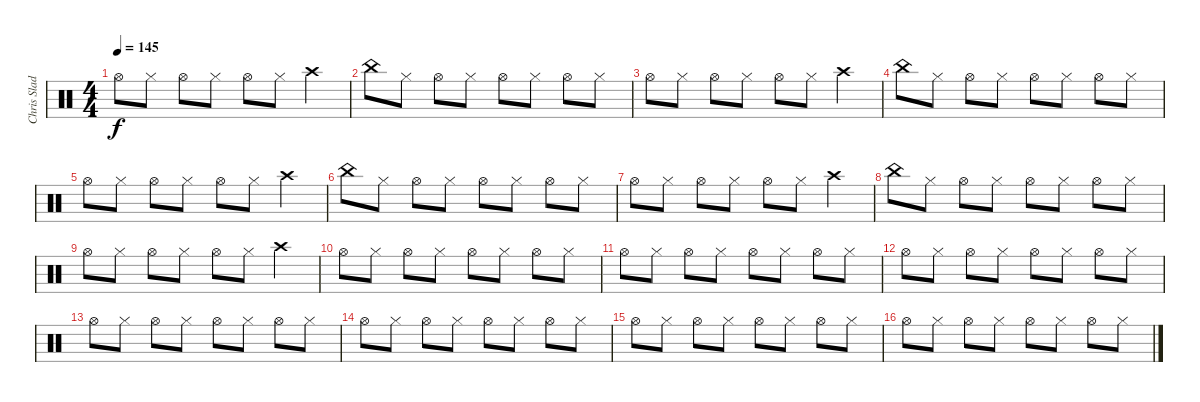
\track ("Chris Slade" "Chris Slad") {instrument percussion}
\staff {score}
\articulation defaults
\ts (4 4)
\tempo 145
\clef neutral
\ks c "Hi-Hat (open)".8{dy f} "Hi-Hat (closed)".8 "Hi-Hat (open)".8 "Hi-Hat (closed)".8 "Hi-Hat (open)".8 "Hi-Hat (closed)".8 "Crash high (hit)".4
|
"China (hit)".8 "Hi-Hat (closed)".8 "Hi-Hat (open)".8 "Hi-Hat (closed)".8 "Hi-Hat (open)".8 "Hi-Hat (closed)".8 "Hi-Hat (open)".8 "Hi-Hat (closed)".8 |
"Hi-Hat (open)".8 "Hi-Hat (closed)".8 "Hi-Hat (open)".8 "Hi-Hat (closed)".8 "Hi-Hat (open)".8 "Hi-Hat (closed)".8 "Crash high (hit)".4 |
"China (hit)".8 "Hi-Hat (closed)".8 "Hi-Hat (open)".8 "Hi-Hat (closed)".8 "Hi-Hat (open)".8 "Hi-Hat (closed)".8 "Hi-Hat (open)".8 "Hi-Hat (closed)".8 |
"Hi-Hat (open)".8 "Hi-Hat (closed)".8 "Hi-Hat (open)".8 "Hi-Hat (closed)".8 "Hi-Hat (open)".8 "Hi-Hat (closed)".8 "Crash high (hit)".4 |
"China (hit)".8 "Hi-Hat (closed)".8 "Hi-Hat (open)".8 "Hi-Hat (closed)".8 "Hi-Hat (open)".8 "Hi-Hat (closed)".8 "Hi-Hat (open)".8 "Hi-Hat (closed)".8 |
"Hi-Hat (open)".8 "Hi-Hat (closed)".8 "Hi-Hat (open)".8 "Hi-Hat (closed)".8 "Hi-Hat (open)".8 "Hi-Hat (closed)".8 "Crash high (hit)".4 |
"China (hit)".8 "Hi-Hat (closed)".8 "Hi-Hat (open)".8 "Hi-Hat (closed)".8 "Hi-Hat (open)".8 "Hi-Hat (closed)".8 "Hi-Hat (open)".8 "Hi-Hat (closed)".8 |
"Hi-Hat (open)".8 "Hi-Hat (closed)".8 "Hi-Hat (open)".8 "Hi-Hat (closed)".8 "Hi-Hat (open)".8 "Hi-Hat (closed)".8 "Crash high (hit)".4 |
"Hi-Hat (open)".8 "Hi-Hat (closed)".8 "Hi-Hat (open)".8 "Hi-Hat (closed)".8 "Hi-Hat (open)".8 "Hi-Hat (closed)".8 "Hi-Hat (open)".8 "Hi-Hat (closed)".8 |
"Hi-Hat (open)".8 "Hi-Hat (closed)".8 "Hi-Hat (open)".8 "Hi-Hat (closed)".8 "Hi-Hat (open)".8 "Hi-Hat (closed)".8 "Hi-Hat (open)".8 "Hi-Hat (closed)".8 |
"Hi-Hat (open)".8 "Hi-Hat (closed)".8 "Hi-Hat (open)".8 "Hi-Hat (closed)".8 "Hi-Hat (open)".8 "Hi-Hat (closed)".8 "Hi-Hat (open)".8 "Hi-Hat (closed)".8 |
"Hi-Hat (open)".8 "Hi-Hat (closed)".8 "Hi-Hat (open)".8 "Hi-Hat (closed)".8 "Hi-Hat (open)".8 "Hi-Hat (closed)".8 "Hi-Hat (open)".8 "Hi-Hat (closed)".8 |
"Hi-Hat (open)".8 "Hi-Hat (closed)".8 "Hi-Hat (open)".8 "Hi-Hat (closed)".8 "Hi-Hat (open)".8 "Hi-Hat (closed)".8 "Hi-Hat (open)".8 "Hi-Hat (closed)".8 |
"Hi-Hat (open)".8 "Hi-Hat (closed)".8 "Hi-Hat (open)".8 "Hi-Hat (closed)".8 "Hi-Hat (open)".8 "Hi-Hat (closed)".8 "Hi-Hat (open)".8 "Hi-Hat (closed)".8 |
"Hi-Hat (open)".8 "Hi-Hat (closed)".8 "Hi-Hat (open)".8 "Hi-Hat (closed)".8 "Hi-Hat (open)".8 "Hi-Hat (closed)".8 "Hi-Hat (open)".8 "Hi-Hat (closed)".8
